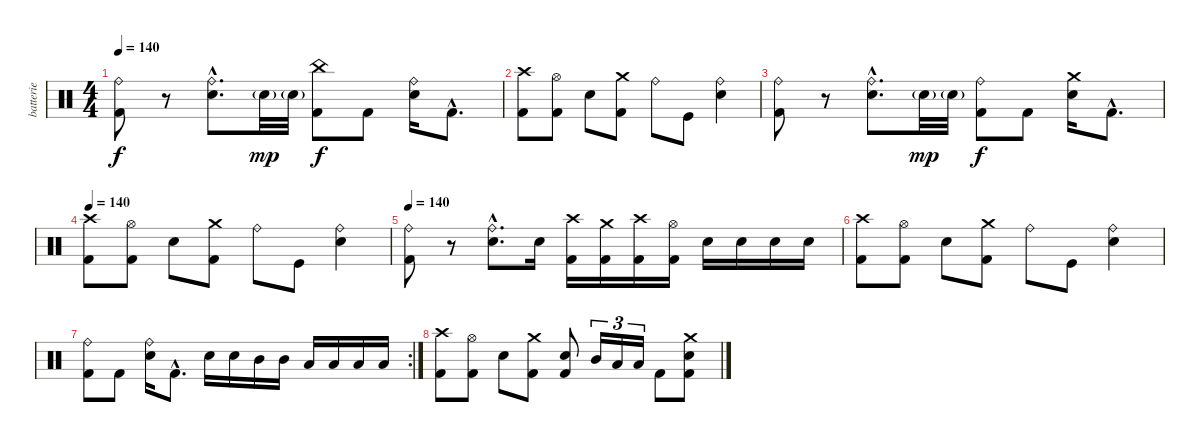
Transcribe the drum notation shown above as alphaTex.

\track ("batterie" "batterie") {instrument percussion}
\staff {score}
\articulation defaults
\ts (4 4)
\tempo 140
\clef neutral
\ks c
("Ride (bell)" "Kick (hit) 2").8{dy f} r.8 ("Ride (bell)"{hac} "Electric Snare (hit)"{hac}).8{d} "Electric Snare (hit)"{g}.32{dy mp} "Electric Snare (hit)"{g}.32 ("China (hit)" "Kick (hit) 2").8{dy f} "Kick (hit) 2".8 ("Ride (bell)" "Electric Snare (hit)").16 "Kick (hit) 2"{hac}.8{d} |
("Crash high (hit)" "Kick (hit) 2").8 ("Hi-Hat (open)" "Kick (hit) 2").8 "Electric Snare (hit)".8 ("Crash medium (hit)" "Kick (hit) 2").8 "Ride (bell)".8 "Kick (hit)".8 ("Ride (bell)" "Electric Snare (hit)").4 |
("Ride (bell)" "Kick (hit) 2").8 r.8 ("Ride (bell)"{hac} "Electric Snare (hit)"{hac}).8{d} "Electric Snare (hit)"{g}.32{dy mp} "Electric Snare (hit)"{g}.32 ("Ride (bell)" "Kick (hit) 2").8{dy f} "Kick (hit) 2".8 ("Crash medium (hit)" "Electric Snare (hit)").16 "Kick (hit) 2"{hac}.8{d} |
\tempo 140
("Crash high (hit)" "Kick (hit) 2").8 ("Hi-Hat (open)" "Kick (hit) 2").8 "Electric Snare (hit)".8 ("Crash medium (hit)" "Kick (hit) 2").8 "Ride (bell)".8 "Kick (hit)".8 ("Ride (bell)" "Electric Snare (hit)").4 |
\tempo 140
("Ride (bell)" "Kick (hit) 2").8 r.8 ("Ride (bell)"{hac} "Electric Snare (hit)"{hac}).8{d} "Electric Snare (hit)".16 ("Crash high (hit)" "Kick (hit) 2").16 ("Crash medium (hit)" "Kick (hit) 2").16 ("Crash high (hit)" "Kick (hit) 2").16 ("Hi-Hat (open)" "Kick (hit) 2").16 "Electric Snare (hit)".16 "Electric Snare (hit)".16 "Electric Snare (hit)".16 "Electric Snare (hit)".16 |
("Crash high (hit)" "Kick (hit) 2").8 ("Hi-Hat (open)" "Kick (hit) 2").8 "Electric Snare (hit)".8 ("Crash medium (hit)" "Kick (hit) 2").8 "Ride (bell)".8 "Kick (hit)".8 ("Ride (bell)" "Electric Snare (hit)").4 |
\rc 2
("Ride (bell)" "Kick (hit) 2").8 "Kick (hit) 2".8 ("Ride (bell)" "Electric Snare (hit)").16 "Kick (hit) 2"{hac}.8{d} "Electric Snare (hit)".16 "Electric Snare (hit)".16 "Mid Tom (hit)".16 "Mid Tom (hit)".16 "Low Tom (hit)".16 "Low Tom (hit)".16 "Low Floor Tom (hit)".16 "Low Floor Tom (hit)".16 |
("Crash high (hit)" "Kick (hit) 2").8{volume 16} ("Hi-Hat (open)" "Kick (hit) 2").8 "Electric Snare (hit)".8 ("Crash medium (hit)" "Kick (hit) 2").8 ("Electric Snare (hit)" "Kick (hit) 2").8 "Mid Tom (hit)".16{tu (3 2)} "Low Tom (hit)".16{tu (3 2)} "Low Floor Tom (hit)".16{tu (3 2)} "Kick (hit) 2".8 ("Crash medium (hit)" "Electric Snare (hit)" "Kick (hit) 2").8
